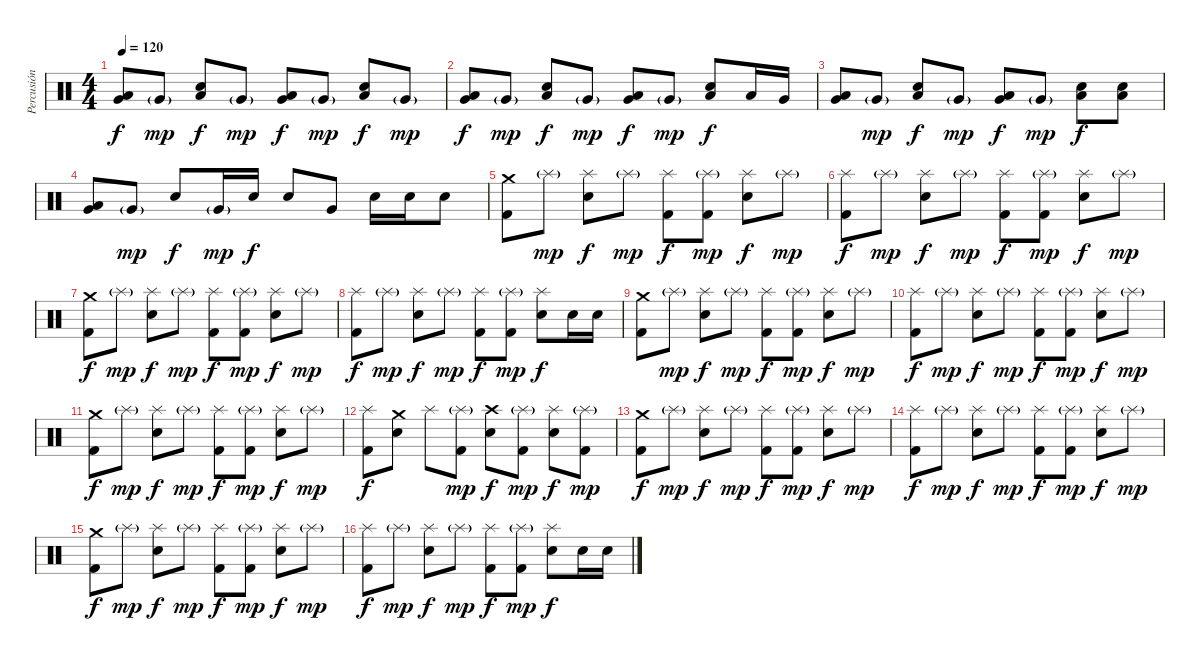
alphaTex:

\track ("Percusión" "Percusión") {instrument percussion}
\staff {score}
\articulation defaults
\ts (4 4)
\tempo 120
\clef neutral
\ks c
("Low Tom (hit)" "Very Low Tom (hit)").8{dy f} "Very Low Tom (hit)"{g}.8{dy mp} ("Low Floor Tom (hit)" "Electric Snare (hit)").8{dy f} "Very Low Tom (hit)"{g}.8{dy mp} ("Low Tom (hit)" "Very Low Tom (hit)").8{dy f} "Very Low Tom (hit)"{g}.8{dy mp} ("Low Floor Tom (hit)" "Electric Snare (hit)").8{dy f} "Very Low Tom (hit)"{g}.8{dy mp} |
("Low Tom (hit)" "Very Low Tom (hit)").8{dy f} "Very Low Tom (hit)"{g}.8{dy mp} ("Low Floor Tom (hit)" "Electric Snare (hit)").8{dy f} "Very Low Tom (hit)"{g}.8{dy mp} ("Low Tom (hit)" "Very Low Tom (hit)").8{dy f} "Very Low Tom (hit)"{g}.8{dy mp} ("Electric Snare (hit)" "Low Floor Tom (hit)").8{dy f} "Low Tom (hit)".16 "Very Low Tom (hit)".16 |
("Low Tom (hit)" "Very Low Tom (hit)").8 "Very Low Tom (hit)"{g}.8{dy mp} ("Low Floor Tom (hit)" "Electric Snare (hit)").8{dy f} "Very Low Tom (hit)"{g}.8{dy mp} ("Low Tom (hit)" "Very Low Tom (hit)").8{dy f} "Very Low Tom (hit)"{g}.8{dy mp} ("Electric Snare (hit)" "Low Floor Tom (hit)").8{dy f} ("Electric Snare (hit)" "Low Floor Tom (hit)").8 |
("Low Tom (hit)" "Very Low Tom (hit)").8 "Very Low Tom (hit)"{g}.8{dy mp} "Electric Snare (hit)".8{dy f} "Very Low Tom (hit)"{g}.16{dy mp} "Electric Snare (hit)".16{dy f} "Electric Snare (hit)".8 "Very Low Tom (hit)".8 "Electric Snare (hit)".16 "Electric Snare (hit)".16 "Electric Snare (hit)".8 |
("Crash medium (hit)" "Kick (hit) 2").8 "Splash (hit)"{g}.8{dy mp} ("Splash (hit)" "Electric Snare (hit)").8{dy f} "Splash (hit)"{g}.8{dy mp} ("Splash (hit)" "Kick (hit) 2").8{dy f} ("Splash (hit)"{g} "Kick (hit) 2").8{dy mp} ("Splash (hit)" "Electric Snare (hit)").8{dy f} "Splash (hit)"{g}.8{dy mp} |
("Splash (hit)" "Kick (hit) 2").8{dy f} "Splash (hit)"{g}.8{dy mp} ("Splash (hit)" "Electric Snare (hit)").8{dy f} "Splash (hit)"{g}.8{dy mp} ("Splash (hit)" "Kick (hit) 2").8{dy f} ("Splash (hit)"{g} "Kick (hit) 2").8{dy mp} ("Splash (hit)" "Electric Snare (hit)").8{dy f} "Splash (hit)"{g}.8{dy mp} |
("Crash medium (hit)" "Kick (hit) 2").8{dy f} "Splash (hit)"{g}.8{dy mp} ("Splash (hit)" "Electric Snare (hit)").8{dy f} "Splash (hit)"{g}.8{dy mp} ("Splash (hit)" "Kick (hit) 2").8{dy f} ("Splash (hit)"{g} "Kick (hit) 2").8{dy mp} ("Splash (hit)" "Electric Snare (hit)").8{dy f} "Splash (hit)"{g}.8{dy mp} |
("Splash (hit)" "Kick (hit) 2").8{dy f} "Splash (hit)"{g}.8{dy mp} ("Splash (hit)" "Electric Snare (hit)").8{dy f} "Splash (hit)"{g}.8{dy mp} ("Splash (hit)" "Kick (hit) 2").8{dy f} ("Splash (hit)"{g} "Kick (hit) 2").8{dy mp} ("Splash (hit)" "Electric Snare (hit)").8{dy f} "Electric Snare (hit)".16 "Electric Snare (hit)".16 |
("Crash medium (hit)" "Kick (hit) 2").8 "Splash (hit)"{g}.8{dy mp} ("Splash (hit)" "Electric Snare (hit)").8{dy f} "Splash (hit)"{g}.8{dy mp} ("Splash (hit)" "Kick (hit) 2").8{dy f} ("Splash (hit)"{g} "Kick (hit) 2").8{dy mp} ("Splash (hit)" "Electric Snare (hit)").8{dy f} "Splash (hit)"{g}.8{dy mp} |
("Splash (hit)" "Kick (hit) 2").8{dy f} "Splash (hit)"{g}.8{dy mp} ("Splash (hit)" "Electric Snare (hit)").8{dy f} "Splash (hit)"{g}.8{dy mp} ("Splash (hit)" "Kick (hit) 2").8{dy f} ("Splash (hit)"{g} "Kick (hit) 2").8{dy mp} ("Splash (hit)" "Electric Snare (hit)").8{dy f} "Splash (hit)"{g}.8{dy mp} |
("Crash medium (hit)" "Kick (hit) 2").8{dy f} "Splash (hit)"{g}.8{dy mp} ("Splash (hit)" "Electric Snare (hit)").8{dy f} "Splash (hit)"{g}.8{dy mp} ("Splash (hit)" "Kick (hit) 2").8{dy f} ("Splash (hit)"{g} "Kick (hit) 2").8{dy mp} ("Splash (hit)" "Electric Snare (hit)").8{dy f} "Splash (hit)"{g}.8{dy mp} |
("Splash (hit)" "Kick (hit) 2").8{dy f} ("Crash medium (hit)" "Electric Snare (hit)").8 "Splash (hit)".8 ("Splash (hit)"{g} "Kick (hit) 2").8{dy mp} ("Crash high (hit)" "Electric Snare (hit)").8{dy f} ("Splash (hit)"{g} "Kick (hit) 2").8{dy mp} ("Splash (hit)" "Electric Snare (hit)").8{dy f} ("Splash (hit)"{g} "Kick (hit) 2").8{dy mp} |
("Crash medium (hit)" "Kick (hit) 2").8{dy f} "Splash (hit)"{g}.8{dy mp} ("Splash (hit)" "Electric Snare (hit)").8{dy f} "Splash (hit)"{g}.8{dy mp} ("Splash (hit)" "Kick (hit) 2").8{dy f} ("Splash (hit)"{g} "Kick (hit) 2").8{dy mp} ("Splash (hit)" "Electric Snare (hit)").8{dy f} "Splash (hit)"{g}.8{dy mp} |
("Splash (hit)" "Kick (hit) 2").8{dy f} "Splash (hit)"{g}.8{dy mp} ("Splash (hit)" "Electric Snare (hit)").8{dy f} "Splash (hit)"{g}.8{dy mp} ("Splash (hit)" "Kick (hit) 2").8{dy f} ("Splash (hit)"{g} "Kick (hit) 2").8{dy mp} ("Splash (hit)" "Electric Snare (hit)").8{dy f} "Splash (hit)"{g}.8{dy mp} |
("Crash medium (hit)" "Kick (hit) 2").8{dy f} "Splash (hit)"{g}.8{dy mp} ("Splash (hit)" "Electric Snare (hit)").8{dy f} "Splash (hit)"{g}.8{dy mp} ("Splash (hit)" "Kick (hit) 2").8{dy f} ("Splash (hit)"{g} "Kick (hit) 2").8{dy mp} ("Splash (hit)" "Electric Snare (hit)").8{dy f} "Splash (hit)"{g}.8{dy mp} |
("Splash (hit)" "Kick (hit) 2").8{dy f} "Splash (hit)"{g}.8{dy mp} ("Splash (hit)" "Electric Snare (hit)").8{dy f} "Splash (hit)"{g}.8{dy mp} ("Splash (hit)" "Kick (hit) 2").8{dy f} ("Splash (hit)"{g} "Kick (hit) 2").8{dy mp} ("Splash (hit)" "Electric Snare (hit)").8{dy f} "Electric Snare (hit)".16 "Electric Snare (hit)".16
